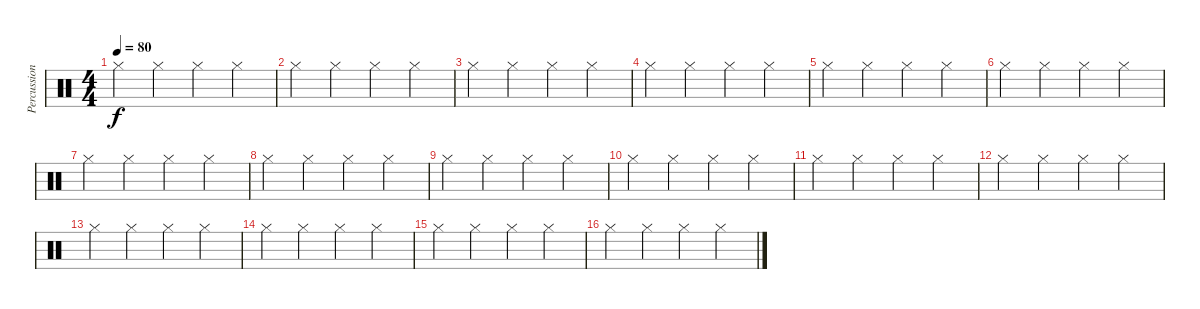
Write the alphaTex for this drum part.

\track ("Percussion" "Percussion") {instrument percussion}
\staff {score}
\articulation defaults
\ts (4 4)
\tempo 80
\clef neutral
\ks c "Hi-Hat (closed)".4{dy f} "Hi-Hat (closed)".4 "Hi-Hat (closed)".4 "Hi-Hat (closed)".4
|
"Hi-Hat (closed)".4 "Hi-Hat (closed)".4 "Hi-Hat (closed)".4 "Hi-Hat (closed)".4 |
"Hi-Hat (closed)".4 "Hi-Hat (closed)".4 "Hi-Hat (closed)".4 "Hi-Hat (closed)".4 |
"Hi-Hat (closed)".4 "Hi-Hat (closed)".4 "Hi-Hat (closed)".4 "Hi-Hat (closed)".4 |
"Hi-Hat (closed)".4 "Hi-Hat (closed)".4 "Hi-Hat (closed)".4 "Hi-Hat (closed)".4 |
"Hi-Hat (closed)".4 "Hi-Hat (closed)".4 "Hi-Hat (closed)".4 "Hi-Hat (closed)".4 |
"Hi-Hat (closed)".4 "Hi-Hat (closed)".4 "Hi-Hat (closed)".4 "Hi-Hat (closed)".4 |
"Hi-Hat (closed)".4 "Hi-Hat (closed)".4 "Hi-Hat (closed)".4 "Hi-Hat (closed)".4 |
"Hi-Hat (closed)".4 "Hi-Hat (closed)".4 "Hi-Hat (closed)".4 "Hi-Hat (closed)".4 |
"Hi-Hat (closed)".4 "Hi-Hat (closed)".4 "Hi-Hat (closed)".4 "Hi-Hat (closed)".4 |
"Hi-Hat (closed)".4 "Hi-Hat (closed)".4 "Hi-Hat (closed)".4 "Hi-Hat (closed)".4 |
"Hi-Hat (closed)".4 "Hi-Hat (closed)".4 "Hi-Hat (closed)".4 "Hi-Hat (closed)".4 |
"Hi-Hat (closed)".4 "Hi-Hat (closed)".4 "Hi-Hat (closed)".4 "Hi-Hat (closed)".4 |
"Hi-Hat (closed)".4 "Hi-Hat (closed)".4 "Hi-Hat (closed)".4 "Hi-Hat (closed)".4 |
"Hi-Hat (closed)".4 "Hi-Hat (closed)".4 "Hi-Hat (closed)".4 "Hi-Hat (closed)".4 |
"Hi-Hat (closed)".4 "Hi-Hat (closed)".4 "Hi-Hat (closed)".4 "Hi-Hat (closed)".4
